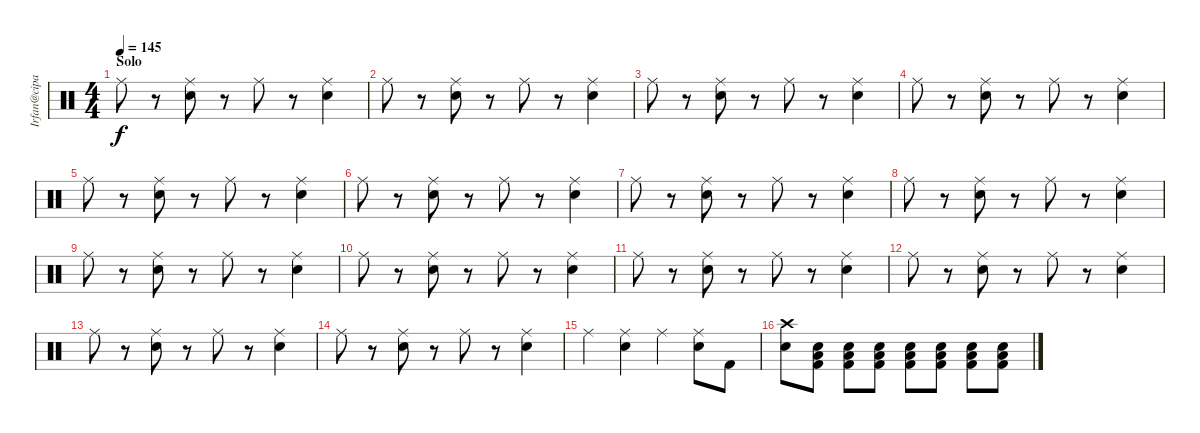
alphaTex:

\track ("Irfan@cipan 2" "Irfan@cipa") {instrument percussion}
\staff {score}
\articulation defaults
\ts (4 4)
\section ("" "Solo")
\tempo 145
\clef neutral
\ks c "Ride (middle)".8{dy f}
r.8 ("Ride (middle)" "Electric Snare (hit)").8 r.8 "Ride (middle)".8 r.8 ("Ride (middle)" "Electric Snare (hit)").4 |
"Ride (middle)".8 r.8 ("Ride (middle)" "Electric Snare (hit)").8 r.8 "Ride (middle)".8 r.8 ("Ride (middle)" "Electric Snare (hit)").4 |
"Ride (middle)".8 r.8 ("Ride (middle)" "Electric Snare (hit)").8 r.8 "Ride (middle)".8 r.8 ("Ride (middle)" "Electric Snare (hit)").4 |
"Ride (middle)".8 r.8 ("Ride (middle)" "Electric Snare (hit)").8 r.8 "Ride (middle)".8 r.8 ("Ride (middle)" "Electric Snare (hit)").4 |
"Ride (middle)".8 r.8 ("Ride (middle)" "Electric Snare (hit)").8 r.8 "Ride (middle)".8 r.8 ("Ride (middle)" "Electric Snare (hit)").4 |
"Ride (middle)".8 r.8 ("Ride (middle)" "Electric Snare (hit)").8 r.8 "Ride (middle)".8 r.8 ("Ride (middle)" "Electric Snare (hit)").4 |
"Ride (middle)".8 r.8 ("Ride (middle)" "Electric Snare (hit)").8 r.8 "Ride (middle)".8 r.8 ("Ride (middle)" "Electric Snare (hit)").4 |
"Ride (middle)".8 r.8 ("Ride (middle)" "Electric Snare (hit)").8 r.8 "Ride (middle)".8 r.8 ("Ride (middle)" "Electric Snare (hit)").4 |
"Ride (middle)".8 r.8 ("Ride (middle)" "Electric Snare (hit)").8 r.8 "Ride (middle)".8 r.8 ("Ride (middle)" "Electric Snare (hit)").4 |
"Ride (middle)".8 r.8 ("Ride (middle)" "Electric Snare (hit)").8 r.8 "Ride (middle)".8 r.8 ("Ride (middle)" "Electric Snare (hit)").4 |
"Ride (middle)".8 r.8 ("Ride (middle)" "Electric Snare (hit)").8 r.8 "Ride (middle)".8 r.8 ("Ride (middle)" "Electric Snare (hit)").4 |
"Ride (middle)".8 r.8 ("Ride (middle)" "Electric Snare (hit)").8 r.8 "Ride (middle)".8 r.8 ("Ride (middle)" "Electric Snare (hit)").4 |
"Ride (middle)".8 r.8 ("Ride (middle)" "Electric Snare (hit)").8 r.8 "Ride (middle)".8 r.8 ("Ride (middle)" "Electric Snare (hit)").4 |
"Ride (middle)".8 r.8 ("Ride (middle)" "Electric Snare (hit)").8 r.8 "Ride (middle)".8 r.8 ("Ride (middle)" "Electric Snare (hit)").4 |
"Ride (middle)".4 ("Ride (middle)" "Electric Snare (hit)").4 "Ride (middle)".4 ("Ride (middle)" "Electric Snare (hit)").8 "Kick (hit) 2".8 |
("Crash high (hit)" "Electric Snare (hit)").8 ("Kick (hit) 2" "Low Floor Tom (hit)" "Electric Snare (hit)").8 ("Kick (hit) 2" "Low Floor Tom (hit)" "Electric Snare (hit)").8 ("Kick (hit) 2" "Low Floor Tom (hit)" "Electric Snare (hit)").8 ("Kick (hit) 2" "Low Floor Tom (hit)" "Electric Snare (hit)").8 ("Kick (hit) 2" "Low Floor Tom (hit)" "Electric Snare (hit)").8 ("Kick (hit) 2" "Low Floor Tom (hit)" "Electric Snare (hit)").8 ("Kick (hit) 2" "Low Floor Tom (hit)" "Electric Snare (hit)").8
